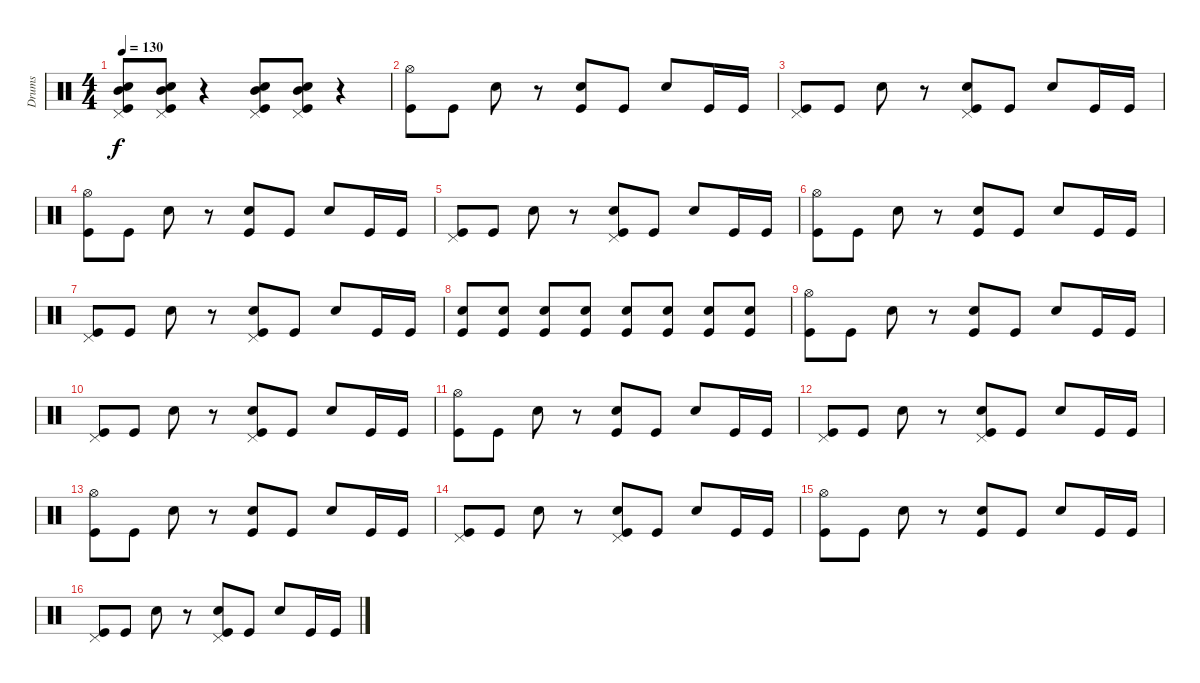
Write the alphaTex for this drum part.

\track ("Drums" "Drums") {instrument percussion}
\staff {score}
\articulation defaults
\ts (4 4)
\tempo 130
\clef neutral
\ks c
("Pedal Hi-Hat (hit)" "Snare (hit) 2" "Mid Tom (hit)" "Kick (hit)").8{dy f} ("Pedal Hi-Hat (hit)" "Snare (hit) 2" "Mid Tom (hit)" "Kick (hit)").8 r.4 ("Pedal Hi-Hat (hit)" "Snare (hit) 2" "Mid Tom (hit)" "Kick (hit)").8 ("Pedal Hi-Hat (hit)" "Snare (hit) 2" "Mid Tom (hit)" "Kick (hit)").8 r.4 |
("Hi-Hat (open)" "Kick (hit)").8 "Kick (hit)".8 "Snare (hit) 2".8 r.8 ("Snare (hit) 2" "Kick (hit)").8 "Kick (hit)".8 "Snare (hit) 2".8 "Kick (hit)".16 "Kick (hit)".16 |
("Pedal Hi-Hat (hit)" "Kick (hit)").8 "Kick (hit)".8 "Snare (hit) 2".8 r.8 ("Pedal Hi-Hat (hit)" "Snare (hit) 2" "Kick (hit)").8 "Kick (hit)".8 "Snare (hit) 2".8 "Kick (hit)".16 "Kick (hit)".16 |
("Hi-Hat (open)" "Kick (hit)").8 "Kick (hit)".8 "Snare (hit) 2".8 r.8 ("Snare (hit) 2" "Kick (hit)").8 "Kick (hit)".8 "Snare (hit) 2".8 "Kick (hit)".16 "Kick (hit)".16 |
("Pedal Hi-Hat (hit)" "Kick (hit)").8 "Kick (hit)".8 "Snare (hit) 2".8 r.8 ("Pedal Hi-Hat (hit)" "Snare (hit) 2" "Kick (hit)").8 "Kick (hit)".8 "Snare (hit) 2".8 "Kick (hit)".16 "Kick (hit)".16 |
("Hi-Hat (open)" "Kick (hit)").8 "Kick (hit)".8 "Snare (hit) 2".8 r.8 ("Snare (hit) 2" "Kick (hit)").8 "Kick (hit)".8 "Snare (hit) 2".8 "Kick (hit)".16 "Kick (hit)".16 |
("Pedal Hi-Hat (hit)" "Kick (hit)").8 "Kick (hit)".8 "Snare (hit) 2".8 r.8 ("Pedal Hi-Hat (hit)" "Snare (hit) 2" "Kick (hit)").8 "Kick (hit)".8 "Snare (hit) 2".8 "Kick (hit)".16 "Kick (hit)".16 |
("Snare (hit) 2" "Kick (hit)").8 ("Snare (hit) 2" "Kick (hit)").8 ("Snare (hit) 2" "Kick (hit)").8 ("Snare (hit) 2" "Kick (hit)").8 ("Snare (hit) 2" "Kick (hit)").8 ("Snare (hit) 2" "Kick (hit)").8 ("Snare (hit) 2" "Kick (hit)").8 ("Snare (hit) 2" "Kick (hit)").8 |
("Hi-Hat (open)" "Kick (hit)").8 "Kick (hit)".8 "Snare (hit) 2".8 r.8 ("Snare (hit) 2" "Kick (hit)").8 "Kick (hit)".8 "Snare (hit) 2".8 "Kick (hit)".16 "Kick (hit)".16 |
("Pedal Hi-Hat (hit)" "Kick (hit)").8 "Kick (hit)".8 "Snare (hit) 2".8 r.8 ("Pedal Hi-Hat (hit)" "Snare (hit) 2" "Kick (hit)").8 "Kick (hit)".8 "Snare (hit) 2".8 "Kick (hit)".16 "Kick (hit)".16 |
("Hi-Hat (open)" "Kick (hit)").8 "Kick (hit)".8 "Snare (hit) 2".8 r.8 ("Snare (hit) 2" "Kick (hit)").8 "Kick (hit)".8 "Snare (hit) 2".8 "Kick (hit)".16 "Kick (hit)".16 |
("Pedal Hi-Hat (hit)" "Kick (hit)").8 "Kick (hit)".8 "Snare (hit) 2".8 r.8 ("Pedal Hi-Hat (hit)" "Snare (hit) 2" "Kick (hit)").8 "Kick (hit)".8 "Snare (hit) 2".8 "Kick (hit)".16 "Kick (hit)".16 |
("Hi-Hat (open)" "Kick (hit)").8 "Kick (hit)".8 "Snare (hit) 2".8 r.8 ("Snare (hit) 2" "Kick (hit)").8 "Kick (hit)".8 "Snare (hit) 2".8 "Kick (hit)".16 "Kick (hit)".16 |
("Pedal Hi-Hat (hit)" "Kick (hit)").8 "Kick (hit)".8 "Snare (hit) 2".8 r.8 ("Pedal Hi-Hat (hit)" "Snare (hit) 2" "Kick (hit)").8 "Kick (hit)".8 "Snare (hit) 2".8 "Kick (hit)".16 "Kick (hit)".16 |
("Hi-Hat (open)" "Kick (hit)").8 "Kick (hit)".8 "Snare (hit) 2".8 r.8 ("Snare (hit) 2" "Kick (hit)").8 "Kick (hit)".8 "Snare (hit) 2".8 "Kick (hit)".16 "Kick (hit)".16 |
("Pedal Hi-Hat (hit)" "Kick (hit)").8 "Kick (hit)".8 "Snare (hit) 2".8 r.8 ("Pedal Hi-Hat (hit)" "Snare (hit) 2" "Kick (hit)").8 "Kick (hit)".8 "Snare (hit) 2".8 "Kick (hit)".16 "Kick (hit)".16
